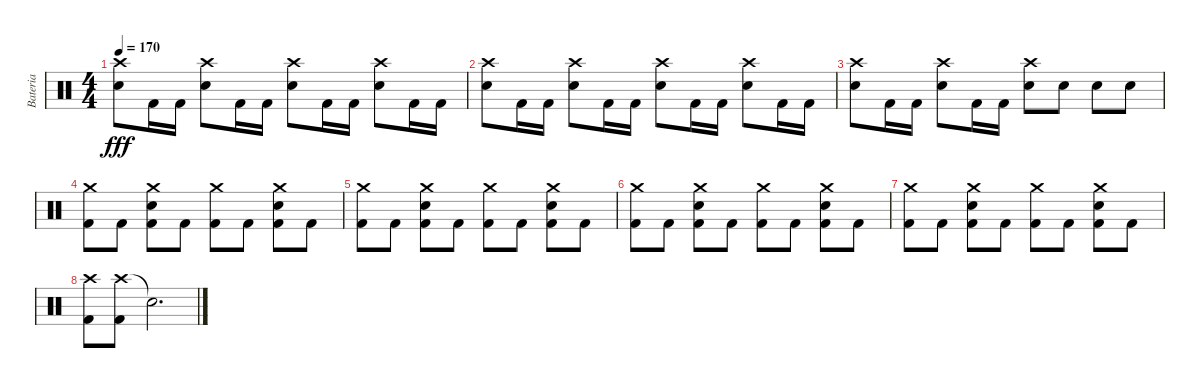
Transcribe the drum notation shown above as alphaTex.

\track ("Bateria" "Bateria") {instrument percussion}
\staff {score}
\articulation defaults
\ts (4 4)
\tempo 170
\clef neutral
\ks c
("Crash high (hit)" "Electric Snare (hit)").8{dy fff} "Kick (hit) 2".16 "Kick (hit) 2".16 ("Crash high (hit)" "Electric Snare (hit)").8 "Kick (hit) 2".16 "Kick (hit) 2".16 ("Crash high (hit)" "Electric Snare (hit)").8 "Kick (hit) 2".16 "Kick (hit) 2".16 ("Crash high (hit)" "Electric Snare (hit)").8 "Kick (hit) 2".16 "Kick (hit) 2".16 |
("Crash high (hit)" "Electric Snare (hit)").8 "Kick (hit) 2".16 "Kick (hit) 2".16 ("Crash high (hit)" "Electric Snare (hit)").8 "Kick (hit) 2".16 "Kick (hit) 2".16 ("Crash high (hit)" "Electric Snare (hit)").8 "Kick (hit) 2".16 "Kick (hit) 2".16 ("Crash high (hit)" "Electric Snare (hit)").8 "Kick (hit) 2".16 "Kick (hit) 2".16 |
("Crash high (hit)" "Electric Snare (hit)").8 "Kick (hit) 2".16 "Kick (hit) 2".16 ("Crash high (hit)" "Electric Snare (hit)").8 "Kick (hit) 2".16 "Kick (hit) 2".16 ("Crash high (hit)" "Electric Snare (hit)").8 "Electric Snare (hit)".8 "Electric Snare (hit)".8 "Electric Snare (hit)".8 |
("Crash medium (hit)" "Kick (hit) 2").8 "Kick (hit) 2".8 ("Crash medium (hit)" "Electric Snare (hit)" "Kick (hit) 2").8 "Kick (hit) 2".8 ("Crash medium (hit)" "Kick (hit) 2").8 "Kick (hit) 2".8 ("Crash medium (hit)" "Electric Snare (hit)" "Kick (hit) 2").8 "Kick (hit) 2".8 |
("Crash medium (hit)" "Kick (hit) 2").8 "Kick (hit) 2".8 ("Crash medium (hit)" "Electric Snare (hit)" "Kick (hit) 2").8 "Kick (hit) 2".8 ("Crash medium (hit)" "Kick (hit) 2").8 "Kick (hit) 2".8 ("Crash medium (hit)" "Electric Snare (hit)" "Kick (hit) 2").8 "Kick (hit) 2".8 |
("Crash medium (hit)" "Kick (hit) 2").8 "Kick (hit) 2".8 ("Crash medium (hit)" "Electric Snare (hit)" "Kick (hit) 2").8 "Kick (hit) 2".8 ("Crash medium (hit)" "Kick (hit) 2").8 "Kick (hit) 2".8 ("Crash medium (hit)" "Electric Snare (hit)" "Kick (hit) 2").8 "Kick (hit) 2".8 |
("Crash medium (hit)" "Kick (hit) 2").8 "Kick (hit) 2".8 ("Crash medium (hit)" "Electric Snare (hit)" "Kick (hit) 2").8 "Kick (hit) 2".8 ("Crash medium (hit)" "Kick (hit) 2").8 "Kick (hit) 2".8 ("Crash medium (hit)" "Electric Snare (hit)" "Kick (hit) 2").8 "Kick (hit) 2".8 |
("Crash high (hit)" "Kick (hit) 2").8 ("Crash high (hit)" "Kick (hit) 2").8 "Snare (hit)"{t}.2{d volume 0}
